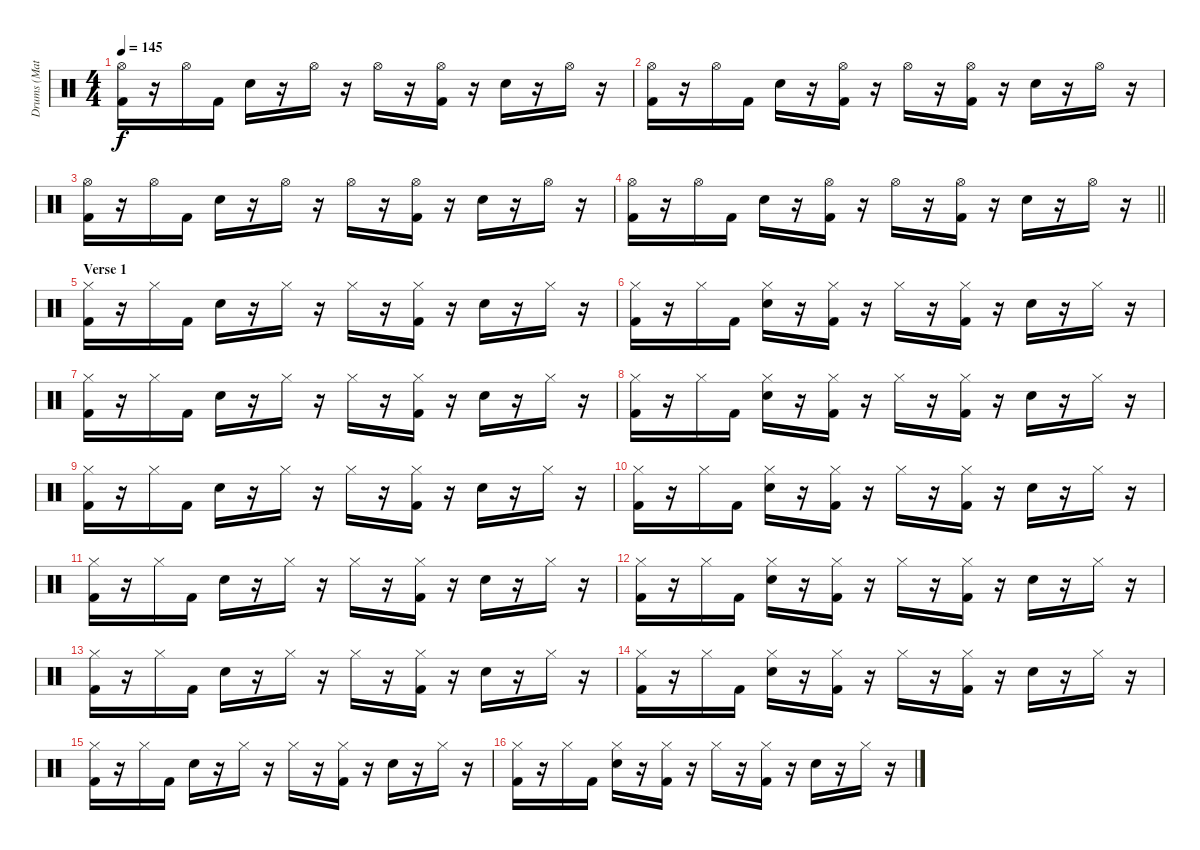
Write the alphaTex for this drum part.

\track ("Drums (Matt)" "Drums (Mat") {instrument percussion}
\staff {score}
\articulation defaults
\ts (4 4)
\tempo 145
\clef neutral
\ks c
("Hi-Hat (open)" "Kick (hit) 2").16{dy f} r.16 "Hi-Hat (open)".16 "Kick (hit) 2".16 "Electric Snare (hit)".16 r.16 "Hi-Hat (open)".16 r.16 "Hi-Hat (open)".16 r.16 ("Hi-Hat (open)" "Kick (hit) 2").16 r.16 "Electric Snare (hit)".16 r.16 "Hi-Hat (open)".16 r.16 |
("Hi-Hat (open)" "Kick (hit) 2").16 r.16 "Hi-Hat (open)".16 "Kick (hit) 2".16 "Electric Snare (hit)".16 r.16 ("Hi-Hat (open)" "Kick (hit) 2").16 r.16 "Hi-Hat (open)".16 r.16 ("Hi-Hat (open)" "Kick (hit) 2").16 r.16 "Electric Snare (hit)".16 r.16 "Hi-Hat (open)".16 r.16 |
("Hi-Hat (open)" "Kick (hit) 2").16 r.16 "Hi-Hat (open)".16 "Kick (hit) 2".16 "Electric Snare (hit)".16 r.16 "Hi-Hat (open)".16 r.16 "Hi-Hat (open)".16 r.16 ("Hi-Hat (open)" "Kick (hit) 2").16 r.16 "Electric Snare (hit)".16 r.16 "Hi-Hat (open)".16 r.16 |
\barLineRight lightlight
("Hi-Hat (open)" "Kick (hit) 2").16 r.16 "Hi-Hat (open)".16 "Kick (hit) 2".16 "Electric Snare (hit)".16 r.16 ("Hi-Hat (open)" "Kick (hit) 2").16 r.16 "Hi-Hat (open)".16 r.16 ("Hi-Hat (open)" "Kick (hit) 2").16 r.16 "Electric Snare (hit)".16 r.16 "Hi-Hat (open)".16 r.16 |
\section ("" "Verse 1")
("Hi-Hat (closed)" "Kick (hit) 2").16 r.16 "Hi-Hat (closed)".16 "Kick (hit) 2".16 "Electric Snare (hit)".16 r.16 "Hi-Hat (closed)".16 r.16 "Hi-Hat (closed)".16 r.16 ("Hi-Hat (closed)" "Kick (hit) 2").16 r.16 "Electric Snare (hit)".16 r.16 "Hi-Hat (closed)".16 r.16 |
("Hi-Hat (closed)" "Kick (hit) 2").16 r.16 "Hi-Hat (closed)".16 "Kick (hit) 2".16 ("Hi-Hat (closed)" "Electric Snare (hit)").16 r.16 ("Hi-Hat (closed)" "Kick (hit) 2").16 r.16 "Hi-Hat (closed)".16 r.16 ("Hi-Hat (closed)" "Kick (hit) 2").16 r.16 "Electric Snare (hit)".16 r.16 "Hi-Hat (closed)".16 r.16 |
("Hi-Hat (closed)" "Kick (hit) 2").16 r.16 "Hi-Hat (closed)".16 "Kick (hit) 2".16 "Electric Snare (hit)".16 r.16 "Hi-Hat (closed)".16 r.16 "Hi-Hat (closed)".16 r.16 ("Hi-Hat (closed)" "Kick (hit) 2").16 r.16 "Electric Snare (hit)".16 r.16 "Hi-Hat (closed)".16 r.16 |
("Hi-Hat (closed)" "Kick (hit) 2").16 r.16 "Hi-Hat (closed)".16 "Kick (hit) 2".16 ("Hi-Hat (closed)" "Electric Snare (hit)").16 r.16 ("Hi-Hat (closed)" "Kick (hit) 2").16 r.16 "Hi-Hat (closed)".16 r.16 ("Hi-Hat (closed)" "Kick (hit) 2").16 r.16 "Electric Snare (hit)".16 r.16 "Hi-Hat (closed)".16 r.16 |
("Hi-Hat (closed)" "Kick (hit) 2").16 r.16 "Hi-Hat (closed)".16 "Kick (hit) 2".16 "Electric Snare (hit)".16 r.16 "Hi-Hat (closed)".16 r.16 "Hi-Hat (closed)".16 r.16 ("Hi-Hat (closed)" "Kick (hit) 2").16 r.16 "Electric Snare (hit)".16 r.16 "Hi-Hat (closed)".16 r.16 |
("Hi-Hat (closed)" "Kick (hit) 2").16 r.16 "Hi-Hat (closed)".16 "Kick (hit) 2".16 ("Hi-Hat (closed)" "Electric Snare (hit)").16 r.16 ("Hi-Hat (closed)" "Kick (hit) 2").16 r.16 "Hi-Hat (closed)".16 r.16 ("Hi-Hat (closed)" "Kick (hit) 2").16 r.16 "Electric Snare (hit)".16 r.16 "Hi-Hat (closed)".16 r.16 |
("Hi-Hat (closed)" "Kick (hit) 2").16 r.16 "Hi-Hat (closed)".16 "Kick (hit) 2".16 "Electric Snare (hit)".16 r.16 "Hi-Hat (closed)".16 r.16 "Hi-Hat (closed)".16 r.16 ("Hi-Hat (closed)" "Kick (hit) 2").16 r.16 "Electric Snare (hit)".16 r.16 "Hi-Hat (closed)".16 r.16 |
("Hi-Hat (closed)" "Kick (hit) 2").16 r.16 "Hi-Hat (closed)".16 "Kick (hit) 2".16 ("Hi-Hat (closed)" "Electric Snare (hit)").16 r.16 ("Hi-Hat (closed)" "Kick (hit) 2").16 r.16 "Hi-Hat (closed)".16 r.16 ("Hi-Hat (closed)" "Kick (hit) 2").16 r.16 "Electric Snare (hit)".16 r.16 "Hi-Hat (closed)".16 r.16 |
("Hi-Hat (closed)" "Kick (hit) 2").16 r.16 "Hi-Hat (closed)".16 "Kick (hit) 2".16 "Electric Snare (hit)".16 r.16 "Hi-Hat (closed)".16 r.16 "Hi-Hat (closed)".16 r.16 ("Hi-Hat (closed)" "Kick (hit) 2").16 r.16 "Electric Snare (hit)".16 r.16 "Hi-Hat (closed)".16 r.16 |
("Hi-Hat (closed)" "Kick (hit) 2").16 r.16 "Hi-Hat (closed)".16 "Kick (hit) 2".16 ("Hi-Hat (closed)" "Electric Snare (hit)").16 r.16 ("Hi-Hat (closed)" "Kick (hit) 2").16 r.16 "Hi-Hat (closed)".16 r.16 ("Hi-Hat (closed)" "Kick (hit) 2").16 r.16 "Electric Snare (hit)".16 r.16 "Hi-Hat (closed)".16 r.16 |
("Hi-Hat (closed)" "Kick (hit) 2").16 r.16 "Hi-Hat (closed)".16 "Kick (hit) 2".16 "Electric Snare (hit)".16 r.16 "Hi-Hat (closed)".16 r.16 "Hi-Hat (closed)".16 r.16 ("Hi-Hat (closed)" "Kick (hit) 2").16 r.16 "Electric Snare (hit)".16 r.16 "Hi-Hat (closed)".16 r.16 |
("Hi-Hat (closed)" "Kick (hit) 2").16 r.16 "Hi-Hat (closed)".16 "Kick (hit) 2".16 ("Hi-Hat (closed)" "Electric Snare (hit)").16 r.16 ("Hi-Hat (closed)" "Kick (hit) 2").16 r.16 "Hi-Hat (closed)".16 r.16 ("Hi-Hat (closed)" "Kick (hit) 2").16 r.16 "Electric Snare (hit)".16 r.16 "Hi-Hat (closed)".16 r.16
